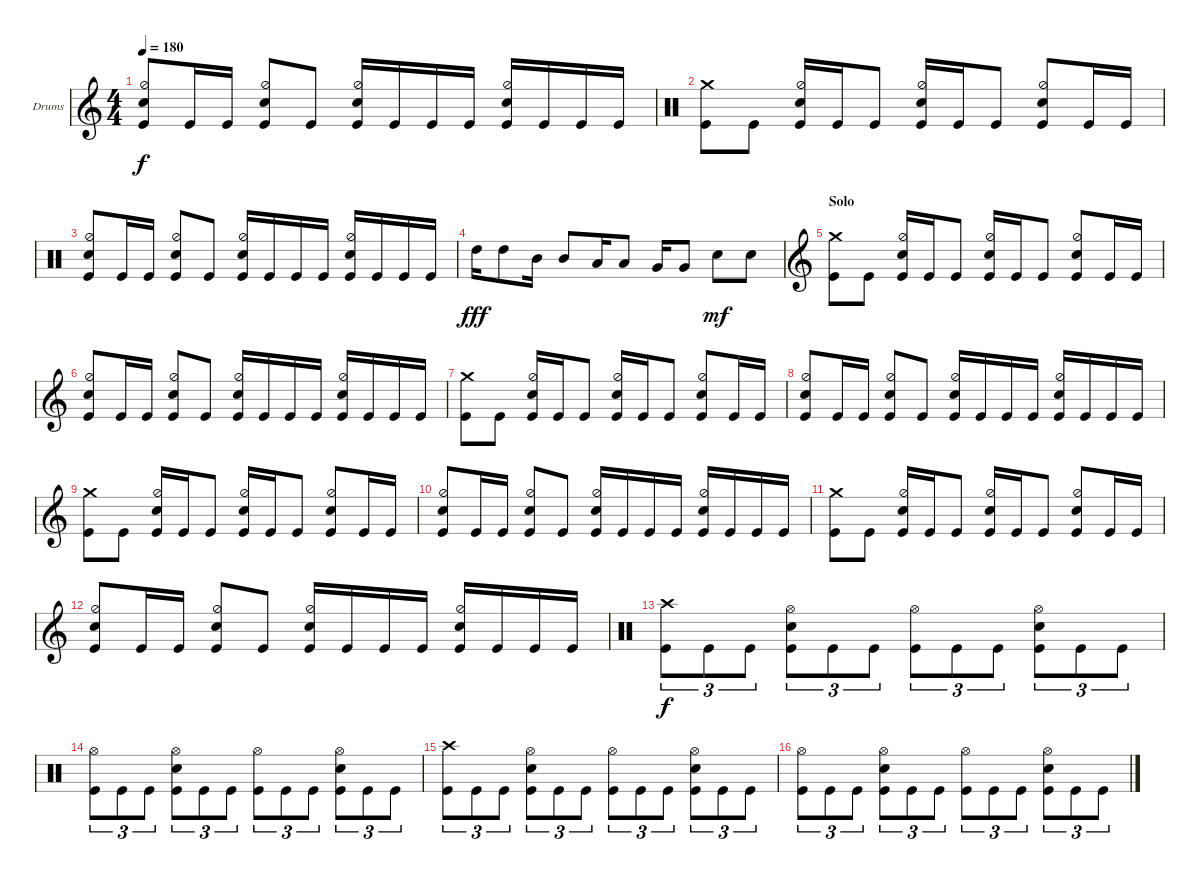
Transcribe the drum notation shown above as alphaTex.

\defaultSystemsLayout 4
\bracketExtendMode groupsimilarinstruments
\firstSystemTrackNameOrientation horizontal
\otherSystemsTrackNameOrientation horizontal
\track ("Drumkit" "Drums") {instrument percussion}
\staff {score}
\articulation defaults
\ts (4 4)
\tempo 180
\clef g2
\ks c
("Kick (hit)" "Hi-Hat (half)" "Snare (hit) 2").8{dy f} "Kick (hit)".16 "Kick (hit)".16 ("Kick (hit)" "Hi-Hat (half)" "Snare (hit) 2").8 "Kick (hit)".8 ("Kick (hit)" "Hi-Hat (half)" "Snare (hit) 2").16 "Kick (hit)".16 "Kick (hit)".16 "Kick (hit)".16 ("Kick (hit)" "Hi-Hat (half)" "Snare (hit) 2").16 "Kick (hit)".16 "Kick (hit)".16 "Kick (hit)".16 |
\clef neutral
("Kick (hit)" "Crash medium (hit)").8 "Kick (hit)".8 ("Kick (hit)" "Hi-Hat (half)" "Snare (hit) 2").16 "Kick (hit)".16 "Kick (hit)".8 ("Kick (hit)" "Hi-Hat (half)" "Snare (hit) 2").16 "Kick (hit)".16 "Kick (hit)".8 ("Kick (hit)" "Hi-Hat (half)" "Snare (hit) 2").8 "Kick (hit)".16 "Kick (hit)".16 |
("Kick (hit)" "Hi-Hat (half)" "Snare (hit) 2").8 "Kick (hit)".16 "Kick (hit)".16 ("Kick (hit)" "Hi-Hat (half)" "Snare (hit) 2").8 "Kick (hit)".8 ("Kick (hit)" "Hi-Hat (half)" "Snare (hit) 2").16 "Kick (hit)".16 "Kick (hit)".16 "Kick (hit)".16 ("Kick (hit)" "Hi-Hat (half)" "Snare (hit) 2").16 "Kick (hit)".16 "Kick (hit)".16 "Kick (hit)".16 |
"High Tom (hit)".16{dy fff} "High Tom (hit)".8 "Mid Tom (hit)".16 "Mid Tom (hit)".8 "Low Tom (hit)".16 "Low Tom (hit)".8 "Very Low Tom (hit)".16 "Very Low Tom (hit)".8 "Snare (hit) 2".8{dy mf} "Snare (hit) 2".8 |
\section ("" "Solo")
\clef g2
("Kick (hit)" "Crash medium (hit)").8 "Kick (hit)".8 ("Kick (hit)" "Hi-Hat (half)" "Snare (hit) 2").16 "Kick (hit)".16 "Kick (hit)".8 ("Kick (hit)" "Hi-Hat (half)" "Snare (hit) 2").16 "Kick (hit)".16 "Kick (hit)".8 ("Kick (hit)" "Hi-Hat (half)" "Snare (hit) 2").8 "Kick (hit)".16 "Kick (hit)".16 |
("Kick (hit)" "Hi-Hat (half)" "Snare (hit) 2").8 "Kick (hit)".16 "Kick (hit)".16 ("Kick (hit)" "Hi-Hat (half)" "Snare (hit) 2").8 "Kick (hit)".8 ("Kick (hit)" "Hi-Hat (half)" "Snare (hit) 2").16 "Kick (hit)".16 "Kick (hit)".16 "Kick (hit)".16 ("Kick (hit)" "Hi-Hat (half)" "Snare (hit) 2").16 "Kick (hit)".16 "Kick (hit)".16 "Kick (hit)".16 |
("Kick (hit)" "Crash medium (hit)").8 "Kick (hit)".8 ("Kick (hit)" "Hi-Hat (half)" "Snare (hit) 2").16 "Kick (hit)".16 "Kick (hit)".8 ("Kick (hit)" "Hi-Hat (half)" "Snare (hit) 2").16 "Kick (hit)".16 "Kick (hit)".8 ("Kick (hit)" "Hi-Hat (half)" "Snare (hit) 2").8 "Kick (hit)".16 "Kick (hit)".16 |
("Kick (hit)" "Hi-Hat (half)" "Snare (hit) 2").8 "Kick (hit)".16 "Kick (hit)".16 ("Kick (hit)" "Hi-Hat (half)" "Snare (hit) 2").8 "Kick (hit)".8 ("Kick (hit)" "Hi-Hat (half)" "Snare (hit) 2").16 "Kick (hit)".16 "Kick (hit)".16 "Kick (hit)".16 ("Kick (hit)" "Hi-Hat (half)" "Snare (hit) 2").16 "Kick (hit)".16 "Kick (hit)".16 "Kick (hit)".16 |
("Kick (hit)" "Crash medium (hit)").8 "Kick (hit)".8 ("Kick (hit)" "Hi-Hat (half)" "Snare (hit) 2").16 "Kick (hit)".16 "Kick (hit)".8 ("Kick (hit)" "Hi-Hat (half)" "Snare (hit) 2").16 "Kick (hit)".16 "Kick (hit)".8 ("Kick (hit)" "Hi-Hat (half)" "Snare (hit) 2").8 "Kick (hit)".16 "Kick (hit)".16 |
("Kick (hit)" "Hi-Hat (half)" "Snare (hit) 2").8 "Kick (hit)".16 "Kick (hit)".16 ("Kick (hit)" "Hi-Hat (half)" "Snare (hit) 2").8 "Kick (hit)".8 ("Kick (hit)" "Hi-Hat (half)" "Snare (hit) 2").16 "Kick (hit)".16 "Kick (hit)".16 "Kick (hit)".16 ("Kick (hit)" "Hi-Hat (half)" "Snare (hit) 2").16 "Kick (hit)".16 "Kick (hit)".16 "Kick (hit)".16 |
("Kick (hit)" "Crash medium (hit)").8 "Kick (hit)".8 ("Kick (hit)" "Hi-Hat (half)" "Snare (hit) 2").16 "Kick (hit)".16 "Kick (hit)".8 ("Kick (hit)" "Hi-Hat (half)" "Snare (hit) 2").16 "Kick (hit)".16 "Kick (hit)".8 ("Kick (hit)" "Hi-Hat (half)" "Snare (hit) 2").8 "Kick (hit)".16 "Kick (hit)".16 |
("Kick (hit)" "Hi-Hat (half)" "Snare (hit) 2").8 "Kick (hit)".16 "Kick (hit)".16 ("Kick (hit)" "Hi-Hat (half)" "Snare (hit) 2").8 "Kick (hit)".8 ("Kick (hit)" "Hi-Hat (half)" "Snare (hit) 2").16 "Kick (hit)".16 "Kick (hit)".16 "Kick (hit)".16 ("Kick (hit)" "Hi-Hat (half)" "Snare (hit) 2").16 "Kick (hit)".16 "Kick (hit)".16 "Kick (hit)".16 |
\clef neutral
("Kick (hit)" "Crash high (hit)").8{tu (3 2) dy f} "Kick (hit)".8{tu (3 2)} "Kick (hit)".8{tu (3 2)} ("Hi-Hat (open)" "Snare (hit) 2" "Kick (hit)").8{tu (3 2)} "Kick (hit)".8{tu (3 2)} "Kick (hit)".8{tu (3 2)} ("Hi-Hat (open)" "Kick (hit)").8{tu (3 2)} "Kick (hit)".8{tu (3 2)} "Kick (hit)".8{tu (3 2)} ("Hi-Hat (open)" "Snare (hit) 2" "Kick (hit)").8{tu (3 2)} "Kick (hit)".8{tu (3 2)} "Kick (hit)".8{tu (3 2)} |
("Hi-Hat (open)" "Kick (hit)").8{tu (3 2)} "Kick (hit)".8{tu (3 2)} "Kick (hit)".8{tu (3 2)} ("Hi-Hat (open)" "Snare (hit) 2" "Kick (hit)").8{tu (3 2)} "Kick (hit)".8{tu (3 2)} "Kick (hit)".8{tu (3 2)} ("Hi-Hat (open)" "Kick (hit)").8{tu (3 2)} "Kick (hit)".8{tu (3 2)} "Kick (hit)".8{tu (3 2)} ("Hi-Hat (open)" "Snare (hit) 2" "Kick (hit)").8{tu (3 2)} "Kick (hit)".8{tu (3 2)} "Kick (hit)".8{tu (3 2)} |
("Kick (hit)" "Crash high (hit)").8{tu (3 2)} "Kick (hit)".8{tu (3 2)} "Kick (hit)".8{tu (3 2)} ("Hi-Hat (open)" "Snare (hit) 2" "Kick (hit)").8{tu (3 2)} "Kick (hit)".8{tu (3 2)} "Kick (hit)".8{tu (3 2)} ("Hi-Hat (open)" "Kick (hit)").8{tu (3 2)} "Kick (hit)".8{tu (3 2)} "Kick (hit)".8{tu (3 2)} ("Hi-Hat (open)" "Snare (hit) 2" "Kick (hit)").8{tu (3 2)} "Kick (hit)".8{tu (3 2)} "Kick (hit)".8{tu (3 2)} |
("Hi-Hat (open)" "Kick (hit)").8{tu (3 2)} "Kick (hit)".8{tu (3 2)} "Kick (hit)".8{tu (3 2)} ("Hi-Hat (open)" "Snare (hit) 2" "Kick (hit)").8{tu (3 2)} "Kick (hit)".8{tu (3 2)} "Kick (hit)".8{tu (3 2)} ("Hi-Hat (open)" "Kick (hit)").8{tu (3 2)} "Kick (hit)".8{tu (3 2)} "Kick (hit)".8{tu (3 2)} ("Hi-Hat (open)" "Snare (hit) 2" "Kick (hit)").8{tu (3 2)} "Kick (hit)".8{tu (3 2)} "Kick (hit)".8{tu (3 2)}
